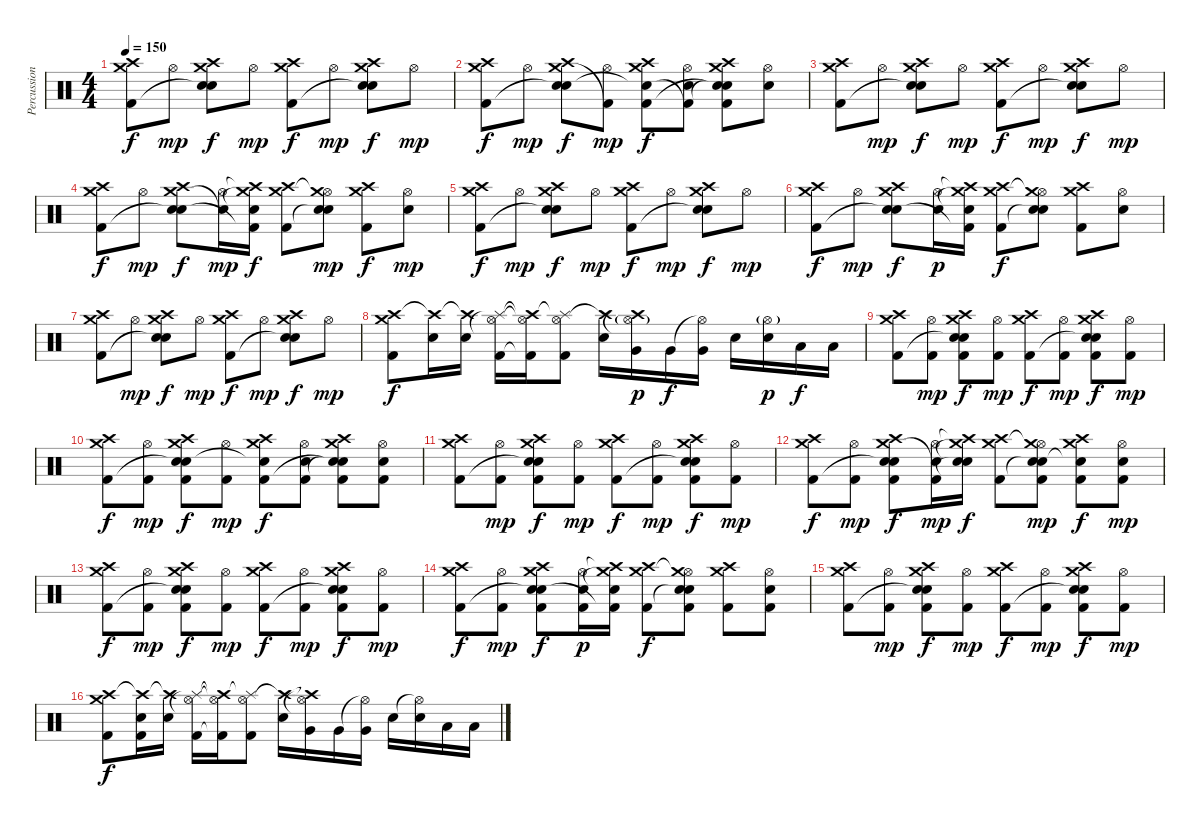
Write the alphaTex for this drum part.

\track ("Percussion" "Percussion") {instrument percussion}
\staff {score}
\articulation defaults
\ts (4 4)
\tempo 150
\clef neutral
\ks c
("Crash high (hit)" "Crash medium (hit)" "Kick (hit) 2").8{dy f} "Hi-Hat (open)".8{dy mp} ("Crash high (hit)" "Crash medium (hit)" "Snare (hit) 2"{t} "Electric Snare (hit)").8{dy f} "Hi-Hat (open)".8{dy mp} ("Crash high (hit)" "Crash medium (hit)" "Kick (hit) 2").8{dy f} "Hi-Hat (open)".8{dy mp} ("Crash high (hit)" "Crash medium (hit)" "Snare (hit) 2"{t} "Electric Snare (hit)").8{dy f} "Hi-Hat (open)".8{dy mp} |
("Crash high (hit)" "Crash medium (hit)" "Kick (hit) 2").8{dy f} "Hi-Hat (open)".8{dy mp} ("Crash high (hit)" "Crash medium (hit)" "Snare (hit) 2"{t} "Electric Snare (hit)").8{dy f} ("Hi-Hat (open)" "Kick (hit) 2"{t}).8{dy mp} ("Crash high (hit)" "Crash medium (hit)" "Electric Snare (hit)"{t} "Kick (hit) 2").8{dy f} ("Hi-Hat (open)" "Electric Snare (hit)" "Kick (hit) 2"{t}).8 ("Crash high (hit)" "Crash medium (hit)" "Snare (hit) 2"{t} "Electric Snare (hit)"{t} "Kick (hit) 2").8 ("Hi-Hat (open)" "Electric Snare (hit)").8 |
("Crash high (hit)" "Crash medium (hit)" "Kick (hit) 2").8 "Hi-Hat (open)".8{dy mp} ("Crash high (hit)" "Crash medium (hit)" "Snare (hit) 2"{t} "Electric Snare (hit)").8{dy f} "Hi-Hat (open)".8{dy mp} ("Crash high (hit)" "Crash medium (hit)" "Kick (hit) 2").8{dy f} "Hi-Hat (open)".8{dy mp} ("Crash high (hit)" "Crash medium (hit)" "Snare (hit) 2"{t} "Electric Snare (hit)").8{dy f} "Hi-Hat (open)".8{dy mp} |
("Crash high (hit)" "Crash medium (hit)" "Kick (hit) 2").8{dy f} "Hi-Hat (open)".8{dy mp} ("Crash high (hit)" "Crash medium (hit)" "Snare (hit) 2"{t} "Electric Snare (hit)").8{dy f} ("Hi-Hat (open)" "Electric Snare (hit)"{t}).16{dy mp} ("Crash high (hit)"{t} "Crash medium (hit)"{t} "Electric Snare (hit)" "Kick (hit) 2"{t}).16{dy f} ("Crash high (hit)" "Crash medium (hit)" "Kick (hit) 2").8 ("Hi-Hat (open)" "Crash medium (hit)"{t} "Snare (hit) 2"{t} "Electric Snare (hit)").8{dy mp} ("Crash high (hit)" "Crash medium (hit)" "Kick (hit) 2").8{dy f} ("Hi-Hat (open)" "Electric Snare (hit)").8{dy mp} |
("Crash high (hit)" "Crash medium (hit)" "Kick (hit) 2").8{dy f} "Hi-Hat (open)".8{dy mp} ("Crash high (hit)" "Crash medium (hit)" "Snare (hit) 2"{t} "Electric Snare (hit)").8{dy f} "Hi-Hat (open)".8{dy mp} ("Crash high (hit)" "Crash medium (hit)" "Kick (hit) 2").8{dy f} "Hi-Hat (open)".8{dy mp} ("Crash high (hit)" "Crash medium (hit)" "Snare (hit) 2"{t} "Electric Snare (hit)").8{dy f} "Hi-Hat (open)".8{dy mp} |
("Crash high (hit)" "Crash medium (hit)" "Kick (hit) 2").8{dy f} "Hi-Hat (open)".8{dy mp} ("Crash high (hit)" "Crash medium (hit)" "Snare (hit) 2"{t} "Electric Snare (hit)").8{dy f} ("Hi-Hat (open)" "Electric Snare (hit)").16{dy p} ("Crash high (hit)"{t} "Crash medium (hit)"{t} "Electric Snare (hit)" "Kick (hit) 2"{t}).16 ("Crash high (hit)" "Crash medium (hit)" "Kick (hit) 2").8{dy f} ("Hi-Hat (open)" "Crash medium (hit)"{t} "Snare (hit) 2"{t} "Electric Snare (hit)").8 ("Crash high (hit)" "Crash medium (hit)" "Kick (hit) 2").8 ("Hi-Hat (open)" "Electric Snare (hit)").8 |
("Crash high (hit)" "Crash medium (hit)" "Kick (hit) 2").8 "Hi-Hat (open)".8{dy mp} ("Crash high (hit)" "Crash medium (hit)" "Snare (hit) 2"{t} "Electric Snare (hit)").8{dy f} "Hi-Hat (open)".8{dy mp} ("Crash high (hit)" "Crash medium (hit)" "Kick (hit) 2").8{dy f} "Hi-Hat (open)".8{dy mp} ("Crash high (hit)" "Crash medium (hit)" "Snare (hit) 2"{t} "Electric Snare (hit)").8{dy f} "Hi-Hat (open)".8{dy mp} |
("Crash high (hit)" "Crash medium (hit)" "Kick (hit) 2").8{dy f} ("Crash high (hit)"{t} "Electric Snare (hit)").16 ("Crash high (hit)"{t} "Electric Snare (hit)").16 ("Hi-Hat (open)" "Splash (hit)"{t} "Kick (hit) 2").16 ("Hi-Hat (open)"{t} "Crash high (hit)"{t} "Kick (hit) 2"{t}).16 ("Hi-Hat (open)" "Splash (hit)"{t} "Kick (hit) 2").8 ("Crash high (hit)"{t} "Electric Snare (hit)").16 ("Hi-Hat (open)"{g} "Crash high (hit)"{t} "Very Low Tom (hit)").16{dy p} "Very Low Tom (hit)".16{dy f} ("Hi-Hat (open)"{t} "Very Low Tom (hit)").16 "Electric Snare (hit)".16 ("Hi-Hat (open)"{g} "Electric Snare (hit)").16{dy p} "Low Floor Tom (hit)".16{dy f} "Low Floor Tom (hit)".16 |
("Crash high (hit)" "Crash medium (hit)" "Kick (hit) 2").8 ("Hi-Hat (open)" "Kick (hit) 2").8{dy mp} ("Crash high (hit)" "Crash medium (hit)" "Snare (hit) 2"{t} "Electric Snare (hit)" "Kick (hit) 2").8{dy f} ("Hi-Hat (open)" "Kick (hit) 2").8{dy mp} ("Crash high (hit)" "Crash medium (hit)" "Kick (hit) 2").8{dy f} ("Hi-Hat (open)" "Kick (hit) 2").8{dy mp} ("Crash high (hit)" "Crash medium (hit)" "Snare (hit) 2"{t} "Electric Snare (hit)" "Kick (hit) 2").8{dy f} ("Hi-Hat (open)" "Kick (hit) 2").8{dy mp} |
("Crash high (hit)" "Crash medium (hit)" "Kick (hit) 2").8{dy f} ("Hi-Hat (open)" "Kick (hit) 2").8{dy mp} ("Crash high (hit)" "Crash medium (hit)" "Snare (hit) 2"{t} "Electric Snare (hit)" "Kick (hit) 2").8{dy f} ("Hi-Hat (open)" "Kick (hit) 2").8{dy mp} ("Crash high (hit)" "Crash medium (hit)" "Electric Snare (hit)"{t} "Kick (hit) 2").8{dy f} ("Hi-Hat (open)" "Electric Snare (hit)" "Kick (hit) 2").8 ("Crash high (hit)" "Crash medium (hit)" "Snare (hit) 2"{t} "Electric Snare (hit)"{t} "Kick (hit) 2").8 ("Hi-Hat (open)" "Electric Snare (hit)" "Kick (hit) 2").8 |
("Crash high (hit)" "Crash medium (hit)" "Kick (hit) 2").8 ("Hi-Hat (open)" "Kick (hit) 2").8{dy mp} ("Crash high (hit)" "Crash medium (hit)" "Snare (hit) 2"{t} "Electric Snare (hit)" "Kick (hit) 2").8{dy f} ("Hi-Hat (open)" "Kick (hit) 2").8{dy mp} ("Crash high (hit)" "Crash medium (hit)" "Kick (hit) 2").8{dy f} ("Hi-Hat (open)" "Kick (hit) 2").8{dy mp} ("Crash high (hit)" "Crash medium (hit)" "Snare (hit) 2"{t} "Electric Snare (hit)" "Kick (hit) 2").8{dy f} ("Hi-Hat (open)" "Kick (hit) 2").8{dy mp} |
("Crash high (hit)" "Crash medium (hit)" "Kick (hit) 2").8{dy f} ("Hi-Hat (open)" "Kick (hit) 2").8{dy mp} ("Crash high (hit)" "Crash medium (hit)" "Snare (hit) 2"{t} "Electric Snare (hit)" "Kick (hit) 2").8{dy f} ("Hi-Hat (open)" "Electric Snare (hit)"{t} "Kick (hit) 2").16{dy mp} ("Crash high (hit)"{t} "Crash medium (hit)"{t} "Electric Snare (hit)"{t} "Electric Snare (hit)").16{dy f} ("Crash high (hit)" "Crash medium (hit)" "Kick (hit) 2").8 ("Hi-Hat (open)" "Crash medium (hit)"{t} "Snare (hit) 2"{t} "Electric Snare (hit)" "Kick (hit) 2").8{dy mp} ("Crash high (hit)" "Crash medium (hit)" "Electric Snare (hit)"{t} "Kick (hit) 2").8{dy f} ("Hi-Hat (open)" "Electric Snare (hit)" "Kick (hit) 2").8{dy mp} |
("Crash high (hit)" "Crash medium (hit)" "Kick (hit) 2").8{dy f} ("Hi-Hat (open)" "Kick (hit) 2").8{dy mp} ("Crash high (hit)" "Crash medium (hit)" "Snare (hit) 2"{t} "Electric Snare (hit)" "Kick (hit) 2").8{dy f} ("Hi-Hat (open)" "Kick (hit) 2").8{dy mp} ("Crash high (hit)" "Crash medium (hit)" "Kick (hit) 2").8{dy f} ("Hi-Hat (open)" "Kick (hit) 2").8{dy mp} ("Crash high (hit)" "Crash medium (hit)" "Snare (hit) 2"{t} "Electric Snare (hit)" "Kick (hit) 2").8{dy f} ("Hi-Hat (open)" "Kick (hit) 2").8{dy mp} |
("Crash high (hit)" "Crash medium (hit)" "Kick (hit) 2").8{dy f} ("Hi-Hat (open)" "Kick (hit) 2").8{dy mp} ("Crash high (hit)" "Crash medium (hit)" "Snare (hit) 2"{t} "Electric Snare (hit)" "Kick (hit) 2").8{dy f} ("Hi-Hat (open)" "Electric Snare (hit)" "Kick (hit) 2").16{dy p} ("Crash high (hit)"{t} "Crash medium (hit)"{t} "Electric Snare (hit)" "Kick (hit) 2"{t}).16 ("Crash high (hit)" "Crash medium (hit)" "Kick (hit) 2").8{dy f} ("Hi-Hat (open)" "Crash medium (hit)"{t} "Snare (hit) 2"{t} "Electric Snare (hit)" "Kick (hit) 2").8 ("Crash high (hit)" "Crash medium (hit)" "Kick (hit) 2").8 ("Hi-Hat (open)" "Electric Snare (hit)" "Kick (hit) 2").8 |
("Crash high (hit)" "Crash medium (hit)" "Kick (hit) 2").8 ("Hi-Hat (open)" "Kick (hit) 2").8{dy mp} ("Crash high (hit)" "Crash medium (hit)" "Snare (hit) 2"{t} "Electric Snare (hit)" "Kick (hit) 2").8{dy f} ("Hi-Hat (open)" "Kick (hit) 2").8{dy mp} ("Crash high (hit)" "Crash medium (hit)" "Kick (hit) 2").8{dy f} ("Hi-Hat (open)" "Kick (hit) 2").8{dy mp} ("Crash high (hit)" "Crash medium (hit)" "Snare (hit) 2"{t} "Electric Snare (hit)" "Kick (hit) 2").8{dy f} ("Hi-Hat (open)" "Kick (hit) 2").8{dy mp} |
("Crash high (hit)" "Crash medium (hit)" "Kick (hit) 2").8{dy f} ("Crash high (hit)"{t} "Electric Snare (hit)" "Kick (hit) 2").16 ("Crash high (hit)"{t} "Electric Snare (hit)").16 ("Hi-Hat (open)" "Splash (hit)"{t} "Kick (hit) 2").16 ("Hi-Hat (open)"{t} "Crash high (hit)"{t} "Kick (hit) 2"{t}).16 ("Hi-Hat (open)" "Splash (hit)"{t} "Kick (hit) 2").8 ("Crash high (hit)"{t} "Electric Snare (hit)").16 ("Hi-Hat (open)"{t} "Crash high (hit)"{t} "Very Low Tom (hit)").16 "Very Low Tom (hit)".16 ("Hi-Hat (open)"{t} "Very Low Tom (hit)").16 "Electric Snare (hit)".16 ("Hi-Hat (open)"{t} "Electric Snare (hit)").16 "Low Floor Tom (hit)".16 "Low Floor Tom (hit)".16
